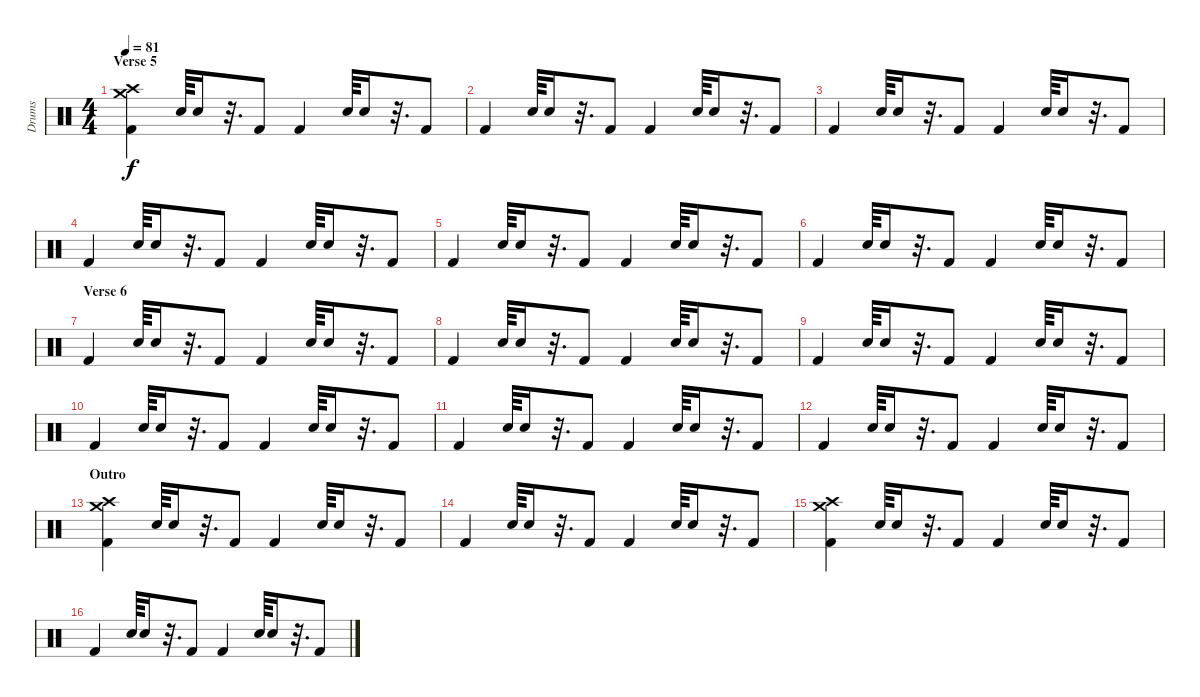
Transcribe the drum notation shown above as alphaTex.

\track ("Drums" "Drums") {instrument percussion}
\staff {score}
\articulation defaults
\ts (4 4)
\section ("" "Verse 5")
\tempo 81
\clef neutral
\ks c
("Crash medium (hit)" "Crash high (hit)" "Kick (hit) 2").4{dy f} "Electric Snare (hit)".64 "Electric Snare (hit)".16 r.32{d} "Kick (hit) 2".8 "Kick (hit) 2".4 "Electric Snare (hit)".64 "Electric Snare (hit)".16 r.32{d} "Kick (hit) 2".8 |
"Kick (hit) 2".4 "Electric Snare (hit)".64 "Electric Snare (hit)".16 r.32{d} "Kick (hit) 2".8 "Kick (hit) 2".4 "Electric Snare (hit)".64 "Electric Snare (hit)".16 r.32{d} "Kick (hit) 2".8 |
"Kick (hit) 2".4 "Electric Snare (hit)".64 "Electric Snare (hit)".16 r.32{d} "Kick (hit) 2".8 "Kick (hit) 2".4 "Electric Snare (hit)".64 "Electric Snare (hit)".16 r.32{d} "Kick (hit) 2".8 |
"Kick (hit) 2".4 "Electric Snare (hit)".64 "Electric Snare (hit)".16 r.32{d} "Kick (hit) 2".8 "Kick (hit) 2".4 "Electric Snare (hit)".64 "Electric Snare (hit)".16 r.32{d} "Kick (hit) 2".8 |
"Kick (hit) 2".4 "Electric Snare (hit)".64 "Electric Snare (hit)".16 r.32{d} "Kick (hit) 2".8 "Kick (hit) 2".4 "Electric Snare (hit)".64 "Electric Snare (hit)".16 r.32{d} "Kick (hit) 2".8 |
"Kick (hit) 2".4 "Electric Snare (hit)".64 "Electric Snare (hit)".16 r.32{d} "Kick (hit) 2".8 "Kick (hit) 2".4 "Electric Snare (hit)".64 "Electric Snare (hit)".16 r.32{d} "Kick (hit) 2".8 |
\section ("" "Verse 6")
"Kick (hit) 2".4 "Electric Snare (hit)".64 "Electric Snare (hit)".16 r.32{d} "Kick (hit) 2".8 "Kick (hit) 2".4 "Electric Snare (hit)".64 "Electric Snare (hit)".16 r.32{d} "Kick (hit) 2".8 |
"Kick (hit) 2".4 "Electric Snare (hit)".64 "Electric Snare (hit)".16 r.32{d} "Kick (hit) 2".8 "Kick (hit) 2".4 "Electric Snare (hit)".64 "Electric Snare (hit)".16 r.32{d} "Kick (hit) 2".8 |
"Kick (hit) 2".4 "Electric Snare (hit)".64 "Electric Snare (hit)".16 r.32{d} "Kick (hit) 2".8 "Kick (hit) 2".4 "Electric Snare (hit)".64 "Electric Snare (hit)".16 r.32{d} "Kick (hit) 2".8 |
"Kick (hit) 2".4 "Electric Snare (hit)".64 "Electric Snare (hit)".16 r.32{d} "Kick (hit) 2".8 "Kick (hit) 2".4 "Electric Snare (hit)".64 "Electric Snare (hit)".16 r.32{d} "Kick (hit) 2".8 |
"Kick (hit) 2".4 "Electric Snare (hit)".64 "Electric Snare (hit)".16 r.32{d} "Kick (hit) 2".8 "Kick (hit) 2".4 "Electric Snare (hit)".64 "Electric Snare (hit)".16 r.32{d} "Kick (hit) 2".8 |
"Kick (hit) 2".4 "Electric Snare (hit)".64 "Electric Snare (hit)".16 r.32{d} "Kick (hit) 2".8 "Kick (hit) 2".4 "Electric Snare (hit)".64 "Electric Snare (hit)".16 r.32{d} "Kick (hit) 2".8 |
\section ("" "Outro")
("Crash medium (hit)" "Crash high (hit)" "Kick (hit) 2").4 "Electric Snare (hit)".64 "Electric Snare (hit)".16 r.32{d} "Kick (hit) 2".8 "Kick (hit) 2".4 "Electric Snare (hit)".64 "Electric Snare (hit)".16 r.32{d} "Kick (hit) 2".8 |
"Kick (hit) 2".4 "Electric Snare (hit)".64 "Electric Snare (hit)".16 r.32{d} "Kick (hit) 2".8 "Kick (hit) 2".4 "Electric Snare (hit)".64 "Electric Snare (hit)".16 r.32{d} "Kick (hit) 2".8 |
("Crash medium (hit)" "Crash high (hit)" "Kick (hit) 2").4 "Electric Snare (hit)".64 "Electric Snare (hit)".16 r.32{d} "Kick (hit) 2".8 "Kick (hit) 2".4 "Electric Snare (hit)".64 "Electric Snare (hit)".16 r.32{d} "Kick (hit) 2".8 |
"Kick (hit) 2".4 "Electric Snare (hit)".64 "Electric Snare (hit)".16 r.32{d} "Kick (hit) 2".8 "Kick (hit) 2".4 "Electric Snare (hit)".64 "Electric Snare (hit)".16 r.32{d} "Kick (hit) 2".8
